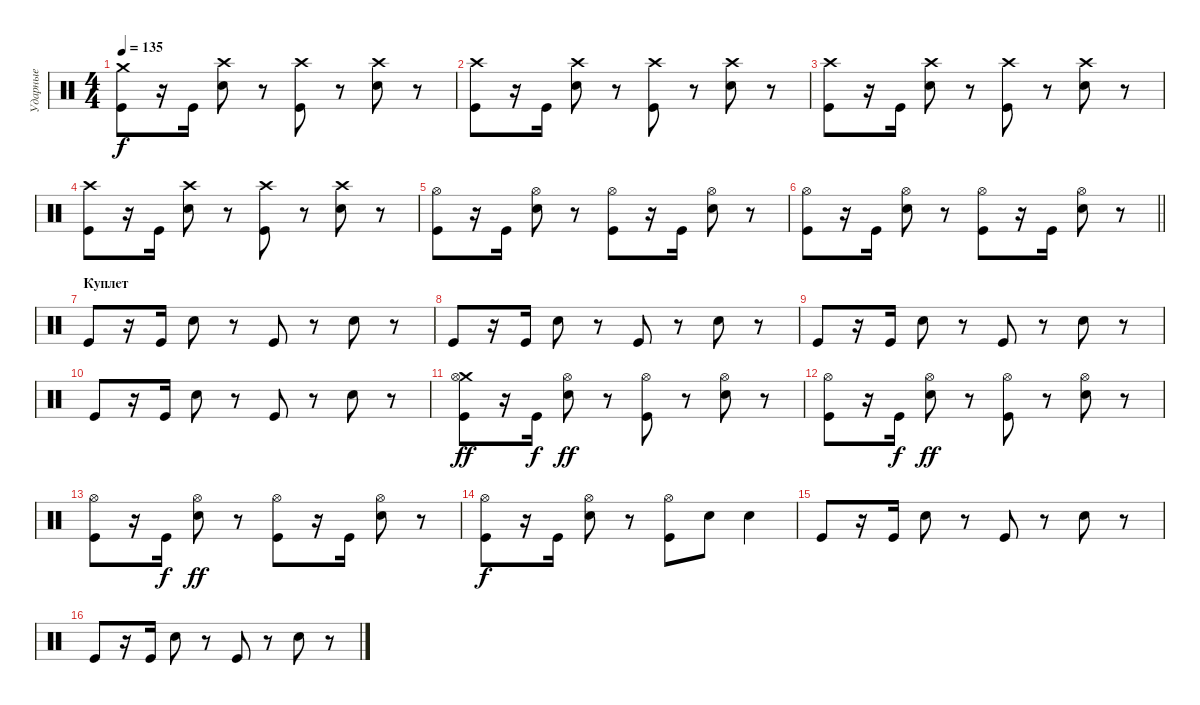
\track ("Ударные" "Ударные") {instrument percussion}
\staff {score}
\articulation defaults
\ts (4 4)
\tempo 135
\clef neutral
\ks c
("Crash medium (hit)" "Kick (hit)").8{dy f} r.16 "Kick (hit)".16 ("Crash high (hit)" "Electric Snare (hit)").8 r.8 ("Crash high (hit)" "Kick (hit)").8 r.8 ("Crash high (hit)" "Electric Snare (hit)").8 r.8 |
("Crash high (hit)" "Kick (hit)").8 r.16 "Kick (hit)".16 ("Crash high (hit)" "Electric Snare (hit)").8 r.8 ("Crash high (hit)" "Kick (hit)").8 r.8 ("Crash high (hit)" "Electric Snare (hit)").8 r.8 |
("Crash high (hit)" "Kick (hit)").8 r.16 "Kick (hit)".16 ("Crash high (hit)" "Electric Snare (hit)").8 r.8 ("Crash high (hit)" "Kick (hit)").8 r.8 ("Crash high (hit)" "Electric Snare (hit)").8 r.8 |
("Crash high (hit)" "Kick (hit)").8 r.16 "Kick (hit)".16 ("Crash high (hit)" "Electric Snare (hit)").8 r.8 ("Crash high (hit)" "Kick (hit)").8 r.8 ("Crash high (hit)" "Electric Snare (hit)").8 r.8 |
("Hi-Hat (open)" "Kick (hit)").8 r.16 "Kick (hit)".16 ("Hi-Hat (open)" "Electric Snare (hit)").8 r.8 ("Hi-Hat (open)" "Kick (hit)").8 r.16 "Kick (hit)".16 ("Hi-Hat (open)" "Electric Snare (hit)").8 r.8 |
\barLineRight lightlight
("Hi-Hat (open)" "Kick (hit)").8 r.16 "Kick (hit)".16 ("Hi-Hat (open)" "Electric Snare (hit)").8 r.8 ("Hi-Hat (open)" "Kick (hit)").8 r.16 "Kick (hit)".16 ("Hi-Hat (open)" "Electric Snare (hit)").8 r.8 |
\section ("" "Куплет")
"Kick (hit)".8 r.16 "Kick (hit)".16 "Electric Snare (hit)".8 r.8 "Kick (hit)".8 r.8 "Electric Snare (hit)".8 r.8 |
"Kick (hit)".8 r.16 "Kick (hit)".16 "Electric Snare (hit)".8 r.8 "Kick (hit)".8 r.8 "Electric Snare (hit)".8 r.8 |
"Kick (hit)".8 r.16 "Kick (hit)".16 "Electric Snare (hit)".8 r.8 "Kick (hit)".8 r.8 "Electric Snare (hit)".8 r.8 |
"Kick (hit)".8 r.16 "Kick (hit)".16 "Electric Snare (hit)".8 r.8 "Kick (hit)".8 r.8 "Electric Snare (hit)".8 r.8 |
("Crash medium (hit)" "Kick (hit)" "Hi-Hat (open)").8{dy ff} r.16 "Kick (hit)".16{dy f} ("Electric Snare (hit)" "Hi-Hat (open)").8{dy ff} r.8 ("Kick (hit)" "Hi-Hat (open)").8 r.8 ("Electric Snare (hit)" "Hi-Hat (open)").8 r.8 |
("Kick (hit)" "Hi-Hat (open)").8 r.16 "Kick (hit)".16{dy f} ("Electric Snare (hit)" "Hi-Hat (open)").8{dy ff} r.8 ("Kick (hit)" "Hi-Hat (open)").8 r.8 ("Electric Snare (hit)" "Hi-Hat (open)").8 r.8 |
("Kick (hit)" "Hi-Hat (open)").8 r.16 "Kick (hit)".16{dy f} ("Electric Snare (hit)" "Hi-Hat (open)").8{dy ff} r.8 ("Kick (hit)" "Hi-Hat (open)").8 r.16 "Kick (hit)".16 ("Electric Snare (hit)" "Hi-Hat (open)").8 r.8 |
("Kick (hit)" "Hi-Hat (open)").8{dy f} r.16 "Kick (hit)".16 ("Electric Snare (hit)" "Hi-Hat (open)").8 r.8 ("Kick (hit)" "Hi-Hat (open)").8 "Electric Snare (hit)".8 "Electric Snare (hit)".4 |
"Kick (hit)".8 r.16 "Kick (hit)".16 "Electric Snare (hit)".8 r.8 "Kick (hit)".8 r.8 "Electric Snare (hit)".8 r.8 |
"Kick (hit)".8 r.16 "Kick (hit)".16 "Electric Snare (hit)".8 r.8 "Kick (hit)".8 r.8 "Electric Snare (hit)".8 r.8
